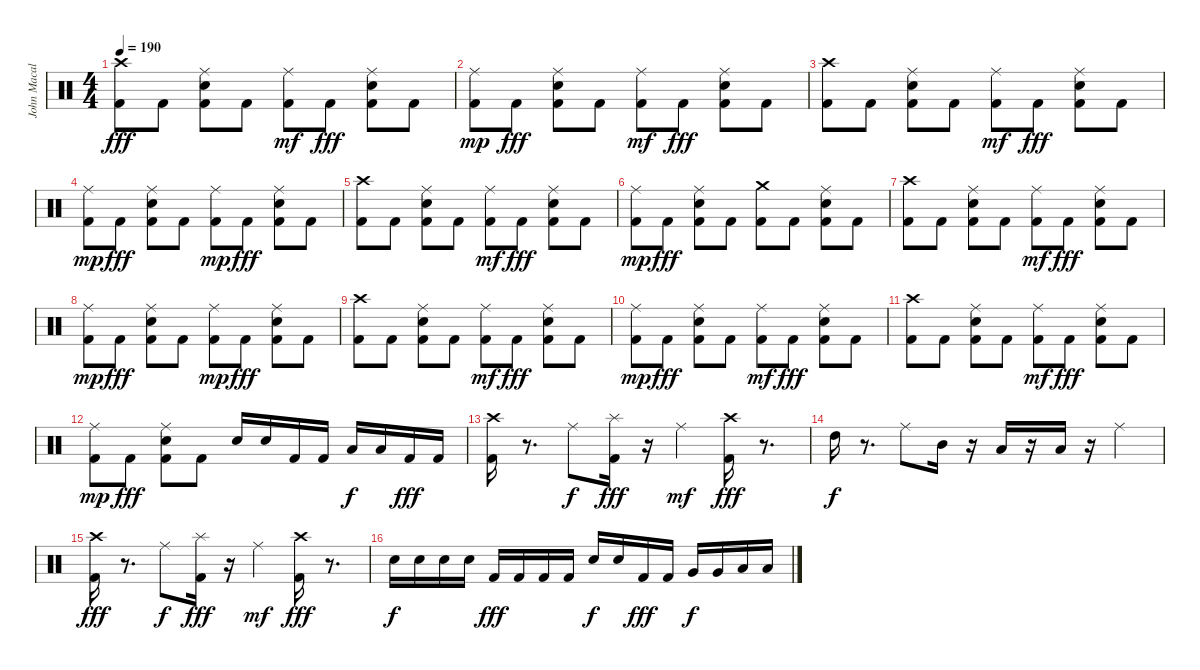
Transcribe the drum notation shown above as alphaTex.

\track ("John Macaluso drums" "John Macal") {instrument percussion}
\staff {score}
\articulation defaults
\ts (4 4)
\tempo 190
\clef neutral
\ks c
("Kick (hit) 2" "Crash high (hit)").8{dy fff} "Kick (hit) 2".8 ("Kick (hit) 2" "Snare (hit) 2" "Ride (middle)").8 "Kick (hit) 2".8 ("Kick (hit) 2" "Ride (middle)").8{dy mf} "Kick (hit) 2".8{dy fff} ("Kick (hit) 2" "Snare (hit) 2" "Ride (middle)").8 "Kick (hit) 2".8 |
("Kick (hit) 2" "Ride (middle)").8{dy mp} "Kick (hit) 2".8{dy fff} ("Kick (hit) 2" "Snare (hit) 2" "Ride (middle)").8 "Kick (hit) 2".8 ("Kick (hit) 2" "Ride (middle)").8{dy mf} "Kick (hit) 2".8{dy fff} ("Kick (hit) 2" "Snare (hit) 2" "Ride (middle)").8 "Kick (hit) 2".8 |
("Kick (hit) 2" "Crash high (hit)").8 "Kick (hit) 2".8 ("Kick (hit) 2" "Snare (hit) 2" "Ride (middle)").8 "Kick (hit) 2".8 ("Kick (hit) 2" "Ride (middle)").8{dy mf} "Kick (hit) 2".8{dy fff} ("Kick (hit) 2" "Snare (hit) 2" "Ride (middle)").8 "Kick (hit) 2".8 |
("Kick (hit) 2" "Ride (middle)").8{dy mp} "Kick (hit) 2".8{dy fff} ("Kick (hit) 2" "Snare (hit) 2" "Ride (middle)").8 "Kick (hit) 2".8 ("Kick (hit) 2" "Ride (middle)").8{dy mp} "Kick (hit) 2".8{dy fff} ("Kick (hit) 2" "Snare (hit) 2" "Ride (middle)").8 "Kick (hit) 2".8 |
("Kick (hit) 2" "Crash high (hit)").8 "Kick (hit) 2".8 ("Kick (hit) 2" "Snare (hit) 2" "Ride (middle)").8 "Kick (hit) 2".8 ("Kick (hit) 2" "Ride (middle)").8{dy mf} "Kick (hit) 2".8{dy fff} ("Kick (hit) 2" "Snare (hit) 2" "Ride (middle)").8 "Kick (hit) 2".8 |
("Kick (hit) 2" "Ride (middle)").8{dy mp} "Kick (hit) 2".8{dy fff} ("Kick (hit) 2" "Snare (hit) 2" "Ride (middle)").8 "Kick (hit) 2".8 ("Kick (hit) 2" "Crash medium (hit)").8 "Kick (hit) 2".8 ("Kick (hit) 2" "Snare (hit) 2" "Ride (middle)").8 "Kick (hit) 2".8 |
("Kick (hit) 2" "Crash high (hit)").8 "Kick (hit) 2".8 ("Kick (hit) 2" "Snare (hit) 2" "Ride (middle)").8 "Kick (hit) 2".8 ("Kick (hit) 2" "Ride (middle)").8{dy mf} "Kick (hit) 2".8{dy fff} ("Kick (hit) 2" "Snare (hit) 2" "Ride (middle)").8 "Kick (hit) 2".8 |
("Kick (hit) 2" "Ride (middle)").8{dy mp} "Kick (hit) 2".8{dy fff} ("Kick (hit) 2" "Snare (hit) 2" "Ride (middle)").8 "Kick (hit) 2".8 ("Kick (hit) 2" "Ride (middle)").8{dy mp} "Kick (hit) 2".8{dy fff} ("Kick (hit) 2" "Snare (hit) 2" "Ride (middle)").8 "Kick (hit) 2".8 |
("Kick (hit) 2" "Crash high (hit)").8 "Kick (hit) 2".8 ("Kick (hit) 2" "Snare (hit) 2" "Ride (middle)").8 "Kick (hit) 2".8 ("Kick (hit) 2" "Ride (middle)").8{dy mf} "Kick (hit) 2".8{dy fff} ("Kick (hit) 2" "Snare (hit) 2" "Ride (middle)").8 "Kick (hit) 2".8 |
("Kick (hit) 2" "Ride (middle)").8{dy mp} "Kick (hit) 2".8{dy fff} ("Kick (hit) 2" "Snare (hit) 2" "Ride (middle)").8 "Kick (hit) 2".8 ("Kick (hit) 2" "Ride (middle)").8{dy mf} "Kick (hit) 2".8{dy fff} ("Kick (hit) 2" "Snare (hit) 2" "Ride (middle)").8 "Kick (hit) 2".8 |
("Kick (hit) 2" "Crash high (hit)").8 "Kick (hit) 2".8 ("Kick (hit) 2" "Snare (hit) 2" "Ride (middle)").8 "Kick (hit) 2".8 ("Kick (hit) 2" "Ride (middle)").8{dy mf} "Kick (hit) 2".8{dy fff} ("Kick (hit) 2" "Snare (hit) 2" "Ride (middle)").8 "Kick (hit) 2".8 |
("Kick (hit) 2" "Ride (middle)").8{dy mp} "Kick (hit) 2".8{dy fff} ("Kick (hit) 2" "Snare (hit) 2" "Ride (middle)").8 "Kick (hit) 2".8 "Snare (hit) 2".16 "Snare (hit) 2".16 "Kick (hit) 2".16 "Kick (hit) 2".16 "Low Floor Tom (hit)".16{dy f} "Low Floor Tom (hit)".16 "Kick (hit) 2".16{dy fff} "Kick (hit) 2".16 |
("Kick (hit) 2" "Crash high (hit)").16 r.8{d} "Ride (middle)".8{dy f} ("Kick (hit) 2" "Splash (hit)").16{dy fff} r.16 "Ride (middle)".4{dy mf} ("Kick (hit) 2" "Crash high (hit)").16{dy fff} r.8{d} |
"High Tom (hit)".16{dy f} r.8{d} "Ride (middle)".8 "Mid Tom (hit)".16 r.16 "Low Tom (hit)".16 r.16 "Low Tom (hit)".16 r.16 "Ride (middle)".4 |
("Kick (hit) 2" "Crash high (hit)").16{dy fff} r.8{d} "Ride (middle)".8{dy f} ("Kick (hit) 2" "Splash (hit)").16{dy fff} r.16 "Ride (middle)".4{dy mf} ("Kick (hit) 2" "Crash high (hit)").16{dy fff} r.8{d} |
"Electric Snare (hit)".16{dy f} "Electric Snare (hit)".16 "Electric Snare (hit)".16 "Electric Snare (hit)".16 "Kick (hit) 2".16{dy fff} "Kick (hit) 2".16 "Kick (hit) 2".16 "Kick (hit) 2".16 "Electric Snare (hit)".16{dy f} "Electric Snare (hit)".16 "Kick (hit) 2".16{dy fff} "Kick (hit) 2".16 "Very Low Tom (hit)".16{dy f} "Very Low Tom (hit)".16 "Low Floor Tom (hit)".16 "Low Floor Tom (hit)".16
